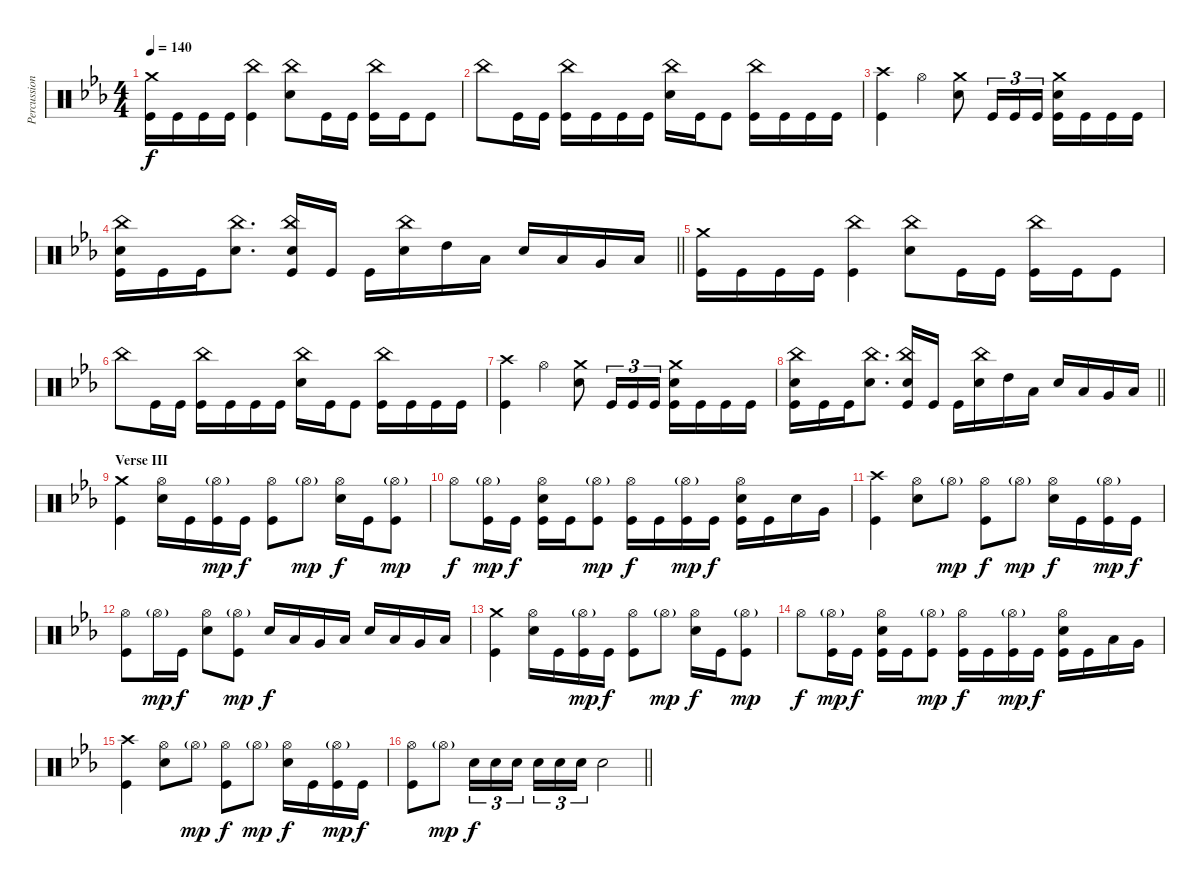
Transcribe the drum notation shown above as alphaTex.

\track ("Percussion" "Percussion") {instrument percussion}
\staff {score}
\articulation defaults
\ts (4 4)
\tempo 140
\clef neutral
\ks eb
("Crash medium (hit)" "Kick (hit)").16{dy f} "Kick (hit)".16 "Kick (hit)".16 "Kick (hit)".16 ("China (hit)" "Kick (hit)").4 ("China (hit)" "Electric Snare (hit)").8 "Kick (hit)".16 "Kick (hit)".16 ("China (hit)" "Kick (hit)").16 "Kick (hit)".16 "Kick (hit)".8 |
"China (hit)".8 "Kick (hit)".16 "Kick (hit)".16 ("China (hit)" "Kick (hit)").16 "Kick (hit)".16 "Kick (hit)".16 "Kick (hit)".16 ("China (hit)" "Electric Snare (hit)").16 "Kick (hit)".16 "Kick (hit)".8 ("China (hit)" "Kick (hit)").16 "Kick (hit)".16 "Kick (hit)".16 "Kick (hit)".16 |
("Crash high (hit)" "Kick (hit)").4 "Hi-Hat (open)".4 ("Crash medium (hit)" "Electric Snare (hit)").8 "Kick (hit)".16{tu (3 2)} "Kick (hit)".16{tu (3 2)} "Kick (hit)".16{tu (3 2)} ("Crash medium (hit)" "Electric Snare (hit)" "Kick (hit)").16 "Kick (hit)".16 "Kick (hit)".16 "Kick (hit)".16 |
\barLineRight lightlight
("China (hit)" "Electric Snare (hit)" "Kick (hit)").16 "Kick (hit)".16 "Kick (hit)".16 ("China (hit)" "Electric Snare (hit)").8{d} ("China (hit)" "Electric Snare (hit)" "Kick (hit)").16 "Kick (hit)".16 "Kick (hit)".16 ("China (hit)" "Electric Snare (hit)").16 "High Tom (hit)".16 "Low Tom (hit)".16 "Electric Snare (hit)".16 "Low Tom (hit)".16 "Very Low Tom (hit)".16 "Low Floor Tom (hit)".16 |
("Crash medium (hit)" "Kick (hit)").16 "Kick (hit)".16 "Kick (hit)".16 "Kick (hit)".16 ("China (hit)" "Kick (hit)").4 ("China (hit)" "Electric Snare (hit)").8 "Kick (hit)".16 "Kick (hit)".16 ("China (hit)" "Kick (hit)").16 "Kick (hit)".16 "Kick (hit)".8 |
"China (hit)".8 "Kick (hit)".16 "Kick (hit)".16 ("China (hit)" "Kick (hit)").16 "Kick (hit)".16 "Kick (hit)".16 "Kick (hit)".16 ("China (hit)" "Electric Snare (hit)").16 "Kick (hit)".16 "Kick (hit)".8 ("China (hit)" "Kick (hit)").16 "Kick (hit)".16 "Kick (hit)".16 "Kick (hit)".16 |
("Crash high (hit)" "Kick (hit)").4 "Hi-Hat (open)".4 ("Crash medium (hit)" "Electric Snare (hit)").8 "Kick (hit)".16{tu (3 2)} "Kick (hit)".16{tu (3 2)} "Kick (hit)".16{tu (3 2)} ("Crash medium (hit)" "Electric Snare (hit)" "Kick (hit)").16 "Kick (hit)".16 "Kick (hit)".16 "Kick (hit)".16 |
\barLineRight lightlight
("China (hit)" "Electric Snare (hit)" "Kick (hit)").16 "Kick (hit)".16 "Kick (hit)".16 ("China (hit)" "Electric Snare (hit)").8{d} ("China (hit)" "Electric Snare (hit)" "Kick (hit)").16 "Kick (hit)".16 "Kick (hit)".16 ("China (hit)" "Electric Snare (hit)").16 "High Tom (hit)".16 "Low Tom (hit)".16 "Electric Snare (hit)".16 "Low Tom (hit)".16 "Very Low Tom (hit)".16 "Low Floor Tom (hit)".16 |
\section ("" "Verse III")
("Crash medium (hit)" "Kick (hit)").4 ("Hi-Hat (open)" "Electric Snare (hit)").16 "Kick (hit)".16 ("Hi-Hat (open)"{g} "Kick (hit)").16{dy mp} "Kick (hit)".16{dy f} ("Hi-Hat (open)" "Kick (hit)").8 "Hi-Hat (open)"{g}.8{dy mp} ("Hi-Hat (open)" "Electric Snare (hit)").16{dy f} "Kick (hit)".16 ("Hi-Hat (open)"{g} "Kick (hit)").8{dy mp} |
"Hi-Hat (open)".8{dy f} ("Hi-Hat (open)"{g} "Kick (hit)").16{dy mp} "Kick (hit)".16{dy f} ("Hi-Hat (open)" "Electric Snare (hit)" "Kick (hit)").16 "Kick (hit)".16 ("Hi-Hat (open)"{g} "Kick (hit)").8{dy mp} ("Hi-Hat (open)" "Kick (hit)").16{dy f} "Kick (hit)".16 ("Hi-Hat (open)"{g} "Kick (hit)").16{dy mp} "Kick (hit)".16{dy f} ("Hi-Hat (open)" "Electric Snare (hit)" "Kick (hit)").16 "Kick (hit)".16 "Electric Snare (hit)".16 "Very Low Tom (hit)".16 |
("Crash high (hit)" "Kick (hit)").4 ("Hi-Hat (open)" "Electric Snare (hit)").8 "Hi-Hat (open)"{g}.8{dy mp} ("Hi-Hat (open)" "Kick (hit)").8{dy f} "Hi-Hat (open)"{g}.8{dy mp} ("Hi-Hat (open)" "Electric Snare (hit)").16{dy f} "Kick (hit)".16 ("Hi-Hat (open)"{g} "Kick (hit)").16{dy mp} "Kick (hit)".16{dy f} |
("Hi-Hat (open)" "Kick (hit)").8 "Hi-Hat (open)"{g}.16{dy mp} "Kick (hit)".16{dy f} ("Hi-Hat (open)" "Electric Snare (hit)").8 ("Hi-Hat (open)"{g} "Kick (hit)").8{dy mp} "Electric Snare (hit)".16{dy f} "Low Tom (hit)".16 "Very Low Tom (hit)".16 "Low Floor Tom (hit)".16 "Electric Snare (hit)".16 "Low Tom (hit)".16 "Very Low Tom (hit)".16 "Low Floor Tom (hit)".16 |
("Crash medium (hit)" "Kick (hit)").4 ("Hi-Hat (open)" "Electric Snare (hit)").16 "Kick (hit)".16 ("Hi-Hat (open)"{g} "Kick (hit)").16{dy mp} "Kick (hit)".16{dy f} ("Hi-Hat (open)" "Kick (hit)").8 "Hi-Hat (open)"{g}.8{dy mp} ("Hi-Hat (open)" "Electric Snare (hit)").16{dy f} "Kick (hit)".16 ("Hi-Hat (open)"{g} "Kick (hit)").8{dy mp} |
"Hi-Hat (open)".8{dy f} ("Hi-Hat (open)"{g} "Kick (hit)").16{dy mp} "Kick (hit)".16{dy f} ("Hi-Hat (open)" "Electric Snare (hit)" "Kick (hit)").16 "Kick (hit)".16 ("Hi-Hat (open)"{g} "Kick (hit)").8{dy mp} ("Hi-Hat (open)" "Kick (hit)").16{dy f} "Kick (hit)".16 ("Hi-Hat (open)"{g} "Kick (hit)").16{dy mp} "Kick (hit)".16{dy f} ("Hi-Hat (open)" "Electric Snare (hit)" "Kick (hit)").16 "Kick (hit)".16 "Low Tom (hit)".16 "Very Low Tom (hit)".16 |
("Crash high (hit)" "Kick (hit)").4 ("Hi-Hat (open)" "Electric Snare (hit)").8 "Hi-Hat (open)"{g}.8{dy mp} ("Hi-Hat (open)" "Kick (hit)").8{dy f} "Hi-Hat (open)"{g}.8{dy mp} ("Hi-Hat (open)" "Electric Snare (hit)").16{dy f} "Kick (hit)".16 ("Hi-Hat (open)"{g} "Kick (hit)").16{dy mp} "Kick (hit)".16{dy f} |
\barLineRight lightlight
("Hi-Hat (open)" "Kick (hit)").8 "Hi-Hat (open)"{g}.8{dy mp} "Electric Snare (hit)".16{tu (3 2) dy f} "Electric Snare (hit)".16{tu (3 2)} "Electric Snare (hit)".16{tu (3 2) beam splitsecondary} "Electric Snare (hit)".16{tu (3 2)} "Electric Snare (hit)".16{tu (3 2)} "Electric Snare (hit)".16{tu (3 2)} "Electric Snare (hit)".2
